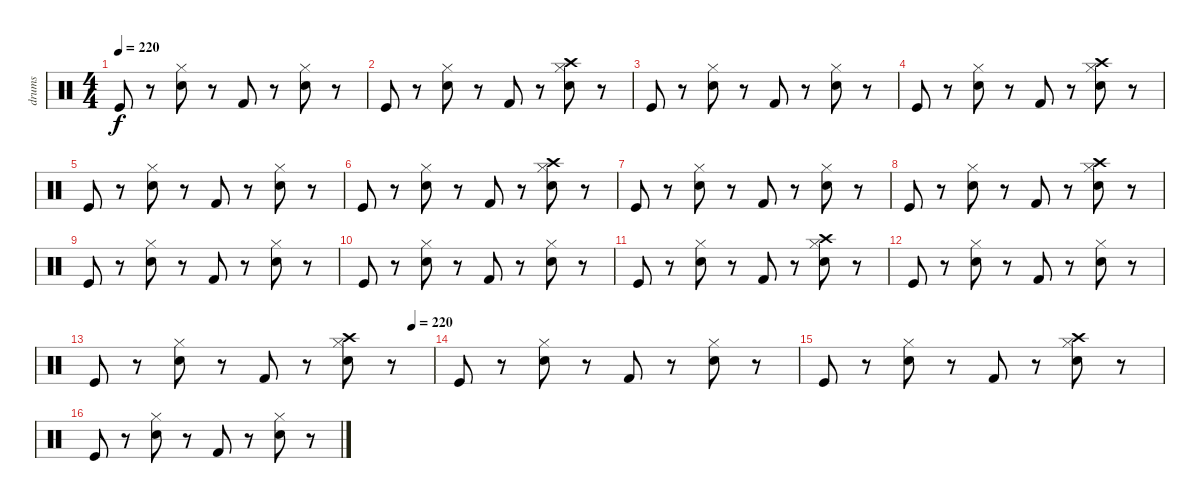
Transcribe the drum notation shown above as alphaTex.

\track ("drums" "drums") {instrument percussion}
\staff {score}
\articulation defaults
\ts (4 4)
\tempo 220
\clef neutral
\ks c "Kick (hit)".8{dy f}
r.8 ("Electric Snare (hit)" "Hi-Hat (closed)").8 r.8 "Kick (hit) 2".8 r.8 ("Electric Snare (hit)" "Hi-Hat (closed)").8 r.8 |
"Kick (hit)".8 r.8 ("Electric Snare (hit)" "Hi-Hat (closed)").8 r.8 "Kick (hit) 2".8 r.8 ("Electric Snare (hit)" "Hi-Hat (closed)" "Crash high (hit)").8 r.8 |
"Kick (hit)".8 r.8 ("Electric Snare (hit)" "Hi-Hat (closed)").8 r.8 "Kick (hit) 2".8 r.8 ("Electric Snare (hit)" "Hi-Hat (closed)").8 r.8 |
"Kick (hit)".8 r.8 ("Electric Snare (hit)" "Hi-Hat (closed)").8 r.8 "Kick (hit) 2".8 r.8 ("Electric Snare (hit)" "Hi-Hat (closed)" "Crash high (hit)").8 r.8 |
"Kick (hit)".8 r.8 ("Electric Snare (hit)" "Hi-Hat (closed)").8 r.8 "Kick (hit) 2".8 r.8 ("Electric Snare (hit)" "Hi-Hat (closed)").8 r.8 |
"Kick (hit)".8 r.8 ("Electric Snare (hit)" "Hi-Hat (closed)").8 r.8 "Kick (hit) 2".8 r.8 ("Electric Snare (hit)" "Hi-Hat (closed)" "Crash high (hit)").8 r.8 |
"Kick (hit)".8 r.8 ("Electric Snare (hit)" "Hi-Hat (closed)").8 r.8 "Kick (hit) 2".8 r.8 ("Electric Snare (hit)" "Hi-Hat (closed)").8 r.8 |
"Kick (hit)".8 r.8 ("Electric Snare (hit)" "Hi-Hat (closed)").8 r.8 "Kick (hit) 2".8 r.8 ("Electric Snare (hit)" "Hi-Hat (closed)" "Crash high (hit)").8 r.8 |
"Kick (hit)".8 r.8 ("Electric Snare (hit)" "Hi-Hat (closed)").8 r.8 "Kick (hit) 2".8 r.8 ("Electric Snare (hit)" "Hi-Hat (closed)").8 r.8 |
"Kick (hit)".8 r.8 ("Electric Snare (hit)" "Hi-Hat (closed)").8 r.8 "Kick (hit) 2".8 r.8 ("Electric Snare (hit)" "Hi-Hat (closed)").8 r.8 |
"Kick (hit)".8 r.8 ("Electric Snare (hit)" "Hi-Hat (closed)").8 r.8 "Kick (hit) 2".8 r.8 ("Electric Snare (hit)" "Hi-Hat (closed)" "Crash high (hit)").8 r.8 |
"Kick (hit)".8 r.8 ("Electric Snare (hit)" "Hi-Hat (closed)").8 r.8 "Kick (hit) 2".8 r.8 ("Electric Snare (hit)" "Hi-Hat (closed)").8 r.8 |
\tempo (220 0.9375)
"Kick (hit)".8 r.8 ("Electric Snare (hit)" "Hi-Hat (closed)").8 r.8 "Kick (hit) 2".8 r.8 ("Electric Snare (hit)" "Hi-Hat (closed)" "Crash high (hit)").8 r.8 |
"Kick (hit)".8 r.8 ("Electric Snare (hit)" "Hi-Hat (closed)").8 r.8 "Kick (hit) 2".8 r.8 ("Electric Snare (hit)" "Hi-Hat (closed)").8 r.8 |
"Kick (hit)".8 r.8 ("Electric Snare (hit)" "Hi-Hat (closed)").8 r.8 "Kick (hit) 2".8 r.8 ("Electric Snare (hit)" "Hi-Hat (closed)" "Crash high (hit)").8 r.8 |
"Kick (hit)".8 r.8 ("Electric Snare (hit)" "Hi-Hat (closed)").8 r.8 "Kick (hit) 2".8 r.8 ("Electric Snare (hit)" "Hi-Hat (closed)").8 r.8
